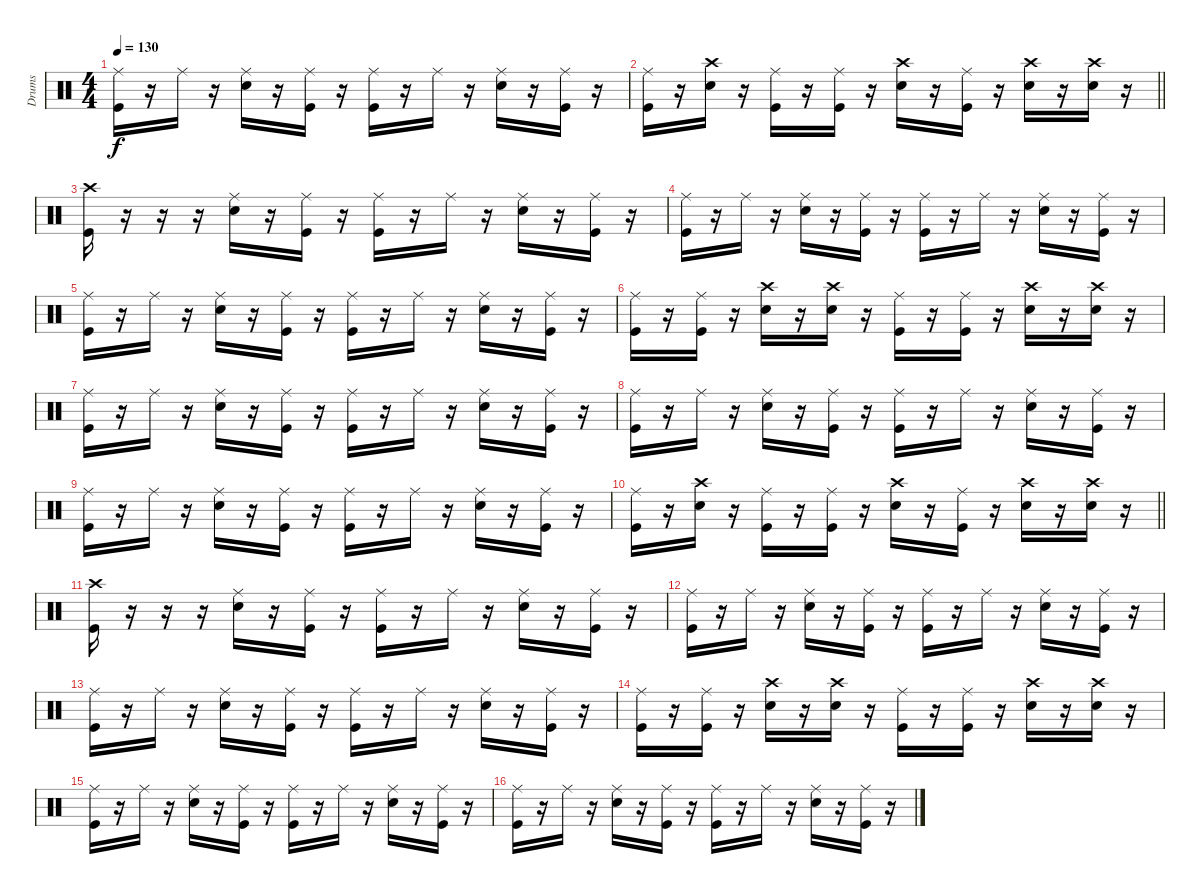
\track ("Drums" "Drums") {instrument percussion}
\staff {score}
\articulation defaults
\ts (4 4)
\tempo 130
\clef neutral
\ks c
("Kick (hit)" "Ride (middle)").16{dy f} r.16 "Ride (middle)".16 r.16 ("Snare (hit) 2" "Ride (middle)").16 r.16 ("Kick (hit)" "Ride (middle)").16 r.16 ("Kick (hit)" "Ride (middle)").16 r.16 "Ride (middle)".16 r.16 ("Snare (hit) 2" "Ride (middle)").16 r.16 ("Kick (hit)" "Ride (middle)").16 r.16 |
\barLineRight lightlight
("Kick (hit)" "Ride (middle)").16 r.16 ("Snare (hit) 2" "Crash high (hit)").16 r.16 ("Kick (hit)" "Ride (middle)").16 r.16 ("Kick (hit)" "Ride (middle)").16 r.16 ("Snare (hit) 2" "Crash high (hit)").16 r.16 ("Kick (hit)" "Ride (middle)").16 r.16 ("Snare (hit) 2" "Crash high (hit)").16 r.16 ("Snare (hit) 2" "Crash high (hit)").16 r.16 |
\section ("" "")
("Kick (hit)" "Crash high (hit)").16 r.16 r.16 r.16 ("Snare (hit) 2" "Ride (middle)").16 r.16 ("Kick (hit)" "Ride (middle)").16 r.16 ("Kick (hit)" "Ride (middle)").16 r.16 "Ride (middle)".16 r.16 ("Snare (hit) 2" "Ride (middle)").16 r.16 ("Kick (hit)" "Ride (middle)").16 r.16 |
("Kick (hit)" "Ride (middle)").16 r.16 "Ride (middle)".16 r.16 ("Snare (hit) 2" "Ride (middle)").16 r.16 ("Kick (hit)" "Ride (middle)").16 r.16 ("Kick (hit)" "Ride (middle)").16 r.16 "Ride (middle)".16 r.16 ("Snare (hit) 2" "Ride (middle)").16 r.16 ("Kick (hit)" "Ride (middle)").16 r.16 |
("Kick (hit)" "Ride (middle)").16 r.16 "Ride (middle)".16 r.16 ("Snare (hit) 2" "Ride (middle)").16 r.16 ("Kick (hit)" "Ride (middle)").16 r.16 ("Kick (hit)" "Ride (middle)").16 r.16 "Ride (middle)".16 r.16 ("Snare (hit) 2" "Ride (middle)").16 r.16 ("Kick (hit)" "Ride (middle)").16 r.16 |
("Kick (hit)" "Ride (middle)").16 r.16 ("Kick (hit)" "Ride (middle)").16 r.16 ("Snare (hit) 2" "Crash high (hit)").16 r.16 ("Snare (hit) 2" "Crash high (hit)").16 r.16 ("Kick (hit)" "Ride (middle)").16 r.16 ("Kick (hit)" "Ride (middle)").16 r.16 ("Snare (hit) 2" "Crash high (hit)").16 r.16 ("Snare (hit) 2" "Crash high (hit)").16 r.16 |
("Kick (hit)" "Ride (middle)").16 r.16 "Ride (middle)".16 r.16 ("Snare (hit) 2" "Ride (middle)").16 r.16 ("Kick (hit)" "Ride (middle)").16 r.16 ("Kick (hit)" "Ride (middle)").16 r.16 "Ride (middle)".16 r.16 ("Snare (hit) 2" "Ride (middle)").16 r.16 ("Kick (hit)" "Ride (middle)").16 r.16 |
("Kick (hit)" "Ride (middle)").16 r.16 "Ride (middle)".16 r.16 ("Snare (hit) 2" "Ride (middle)").16 r.16 ("Kick (hit)" "Ride (middle)").16 r.16 ("Kick (hit)" "Ride (middle)").16 r.16 "Ride (middle)".16 r.16 ("Snare (hit) 2" "Ride (middle)").16 r.16 ("Kick (hit)" "Ride (middle)").16 r.16 |
("Kick (hit)" "Ride (middle)").16 r.16 "Ride (middle)".16 r.16 ("Snare (hit) 2" "Ride (middle)").16 r.16 ("Kick (hit)" "Ride (middle)").16 r.16 ("Kick (hit)" "Ride (middle)").16 r.16 "Ride (middle)".16 r.16 ("Snare (hit) 2" "Ride (middle)").16 r.16 ("Kick (hit)" "Ride (middle)").16 r.16 |
\barLineRight lightlight
("Kick (hit)" "Ride (middle)").16 r.16 ("Snare (hit) 2" "Crash high (hit)").16 r.16 ("Kick (hit)" "Ride (middle)").16 r.16 ("Kick (hit)" "Ride (middle)").16 r.16 ("Snare (hit) 2" "Crash high (hit)").16 r.16 ("Kick (hit)" "Ride (middle)").16 r.16 ("Snare (hit) 2" "Crash high (hit)").16 r.16 ("Snare (hit) 2" "Crash high (hit)").16 r.16 |
\section ("" "")
("Kick (hit)" "Crash high (hit)").16 r.16 r.16 r.16 ("Snare (hit) 2" "Ride (middle)").16 r.16 ("Kick (hit)" "Ride (middle)").16 r.16 ("Kick (hit)" "Ride (middle)").16 r.16 "Ride (middle)".16 r.16 ("Snare (hit) 2" "Ride (middle)").16 r.16 ("Kick (hit)" "Ride (middle)").16 r.16 |
("Kick (hit)" "Ride (middle)").16 r.16 "Ride (middle)".16 r.16 ("Snare (hit) 2" "Ride (middle)").16 r.16 ("Kick (hit)" "Ride (middle)").16 r.16 ("Kick (hit)" "Ride (middle)").16 r.16 "Ride (middle)".16 r.16 ("Snare (hit) 2" "Ride (middle)").16 r.16 ("Kick (hit)" "Ride (middle)").16 r.16 |
("Kick (hit)" "Ride (middle)").16 r.16 "Ride (middle)".16 r.16 ("Snare (hit) 2" "Ride (middle)").16 r.16 ("Kick (hit)" "Ride (middle)").16 r.16 ("Kick (hit)" "Ride (middle)").16 r.16 "Ride (middle)".16 r.16 ("Snare (hit) 2" "Ride (middle)").16 r.16 ("Kick (hit)" "Ride (middle)").16 r.16 |
("Kick (hit)" "Ride (middle)").16 r.16 ("Kick (hit)" "Ride (middle)").16 r.16 ("Snare (hit) 2" "Crash high (hit)").16 r.16 ("Snare (hit) 2" "Crash high (hit)").16 r.16 ("Kick (hit)" "Ride (middle)").16 r.16 ("Kick (hit)" "Ride (middle)").16 r.16 ("Snare (hit) 2" "Crash high (hit)").16 r.16 ("Snare (hit) 2" "Crash high (hit)").16 r.16 |
("Kick (hit)" "Ride (middle)").16 r.16 "Ride (middle)".16 r.16 ("Snare (hit) 2" "Ride (middle)").16 r.16 ("Kick (hit)" "Ride (middle)").16 r.16 ("Kick (hit)" "Ride (middle)").16 r.16 "Ride (middle)".16 r.16 ("Snare (hit) 2" "Ride (middle)").16 r.16 ("Kick (hit)" "Ride (middle)").16 r.16 |
("Kick (hit)" "Ride (middle)").16 r.16 "Ride (middle)".16 r.16 ("Snare (hit) 2" "Ride (middle)").16 r.16 ("Kick (hit)" "Ride (middle)").16 r.16 ("Kick (hit)" "Ride (middle)").16 r.16 "Ride (middle)".16 r.16 ("Snare (hit) 2" "Ride (middle)").16 r.16 ("Kick (hit)" "Ride (middle)").16 r.16
